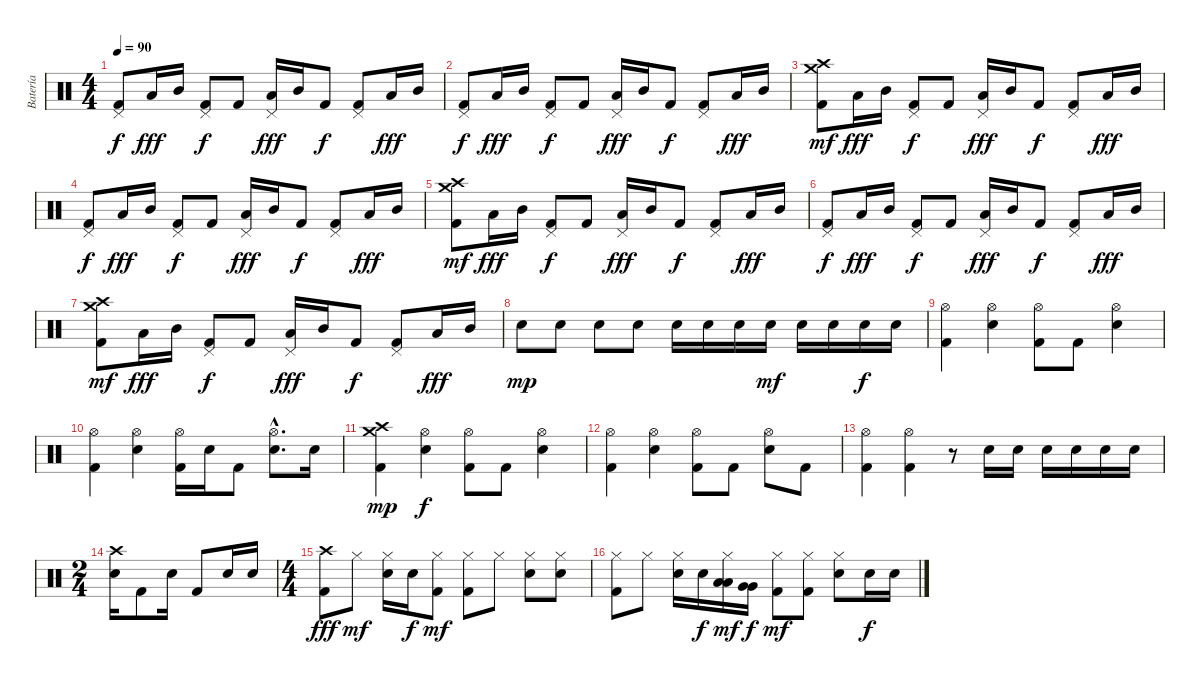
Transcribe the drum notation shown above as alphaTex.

\track ("Batería" "Batería") {instrument percussion}
\staff {score}
\articulation defaults
\ts (4 4)
\tempo 90
\clef neutral
\ks c
("Pedal Hi-Hat (hit)" "Kick (hit) 2").8{dy f} "Low Tom (hit)".16{dy fff} "Mid Tom (hit)".16 ("Pedal Hi-Hat (hit)" "Kick (hit) 2").8{dy f} "Kick (hit) 2".8 ("Pedal Hi-Hat (hit)" "Low Tom (hit)").16{dy fff} "Mid Tom (hit)".16 "Kick (hit) 2".8{dy f} ("Pedal Hi-Hat (hit)" "Kick (hit) 2").8 "Low Tom (hit)".16{dy fff} "Mid Tom (hit)".16 |
("Pedal Hi-Hat (hit)" "Kick (hit) 2").8{dy f} "Low Tom (hit)".16{dy fff} "Mid Tom (hit)".16 ("Pedal Hi-Hat (hit)" "Kick (hit) 2").8{dy f} "Kick (hit) 2".8 ("Pedal Hi-Hat (hit)" "Low Tom (hit)").16{dy fff} "Mid Tom (hit)".16 "Kick (hit) 2".8{dy f} ("Pedal Hi-Hat (hit)" "Kick (hit) 2").8 "Low Tom (hit)".16{dy fff} "Mid Tom (hit)".16 |
("Crash high (hit)" "Crash medium (hit)" "Kick (hit) 2").8{dy mf} "Low Tom (hit)".16{dy fff} "Mid Tom (hit)".16 ("Pedal Hi-Hat (hit)" "Kick (hit) 2").8{dy f} "Kick (hit) 2".8 ("Pedal Hi-Hat (hit)" "Low Tom (hit)").16{dy fff} "Mid Tom (hit)".16 "Kick (hit) 2".8{dy f} ("Pedal Hi-Hat (hit)" "Kick (hit) 2").8 "Low Tom (hit)".16{dy fff} "Mid Tom (hit)".16 |
("Pedal Hi-Hat (hit)" "Kick (hit) 2").8{dy f} "Low Tom (hit)".16{dy fff} "Mid Tom (hit)".16 ("Pedal Hi-Hat (hit)" "Kick (hit) 2").8{dy f} "Kick (hit) 2".8 ("Pedal Hi-Hat (hit)" "Low Tom (hit)").16{dy fff} "Mid Tom (hit)".16 "Kick (hit) 2".8{dy f} ("Pedal Hi-Hat (hit)" "Kick (hit) 2").8 "Low Tom (hit)".16{dy fff} "Mid Tom (hit)".16 |
("Crash high (hit)" "Crash medium (hit)" "Kick (hit) 2").8{dy mf} "Low Tom (hit)".16{dy fff} "Mid Tom (hit)".16 ("Pedal Hi-Hat (hit)" "Kick (hit) 2").8{dy f} "Kick (hit) 2".8 ("Pedal Hi-Hat (hit)" "Low Tom (hit)").16{dy fff} "Mid Tom (hit)".16 "Kick (hit) 2".8{dy f} ("Pedal Hi-Hat (hit)" "Kick (hit) 2").8 "Low Tom (hit)".16{dy fff} "Mid Tom (hit)".16 |
("Pedal Hi-Hat (hit)" "Kick (hit) 2").8{dy f} "Low Tom (hit)".16{dy fff} "Mid Tom (hit)".16 ("Pedal Hi-Hat (hit)" "Kick (hit) 2").8{dy f} "Kick (hit) 2".8 ("Pedal Hi-Hat (hit)" "Low Tom (hit)").16{dy fff} "Mid Tom (hit)".16 "Kick (hit) 2".8{dy f} ("Pedal Hi-Hat (hit)" "Kick (hit) 2").8 "Low Tom (hit)".16{dy fff} "Mid Tom (hit)".16 |
("Crash high (hit)" "Crash medium (hit)" "Kick (hit) 2").8{dy mf} "Low Tom (hit)".16{dy fff} "Mid Tom (hit)".16 ("Pedal Hi-Hat (hit)" "Kick (hit) 2").8{dy f} "Kick (hit) 2".8 ("Pedal Hi-Hat (hit)" "Low Tom (hit)").16{dy fff} "Mid Tom (hit)".16 "Kick (hit) 2".8{dy f} ("Pedal Hi-Hat (hit)" "Kick (hit) 2").8 "Low Tom (hit)".16{dy fff} "Mid Tom (hit)".16 |
"Snare (hit) 2".8{dy mp} "Snare (hit) 2".8 "Snare (hit) 2".8 "Snare (hit) 2".8 "Snare (hit) 2".16 "Snare (hit) 2".16 "Snare (hit) 2".16 "Snare (hit) 2".16{dy mf} "Snare (hit) 2".16 "Snare (hit) 2".16 "Snare (hit) 2".16{dy f} "Snare (hit) 2".16 |
("Hi-Hat (open)" "Kick (hit) 2").4 ("Hi-Hat (open)" "Snare (hit) 2").4 ("Hi-Hat (open)" "Kick (hit) 2").8 "Kick (hit) 2".8 ("Hi-Hat (open)" "Snare (hit) 2").4 |
("Hi-Hat (open)" "Kick (hit) 2").4 ("Hi-Hat (open)" "Snare (hit) 2").4 ("Hi-Hat (open)" "Kick (hit) 2").16 "Snare (hit) 2".16 "Kick (hit) 2".8 ("Hi-Hat (open)"{hac} "Snare (hit) 2"{hac}).8{d} "Snare (hit) 2".16 |
("Crash high (hit)" "Crash medium (hit)" "Kick (hit) 2").4{dy mp} ("Hi-Hat (open)" "Snare (hit) 2").4{dy f} ("Hi-Hat (open)" "Kick (hit) 2").8 "Kick (hit) 2".8 ("Hi-Hat (open)" "Snare (hit) 2").4 |
("Hi-Hat (open)" "Kick (hit) 2").4 ("Hi-Hat (open)" "Snare (hit) 2").4 ("Hi-Hat (open)" "Kick (hit) 2").8 "Kick (hit) 2".8 ("Hi-Hat (open)" "Snare (hit) 2").8 "Kick (hit) 2".8 |
("Hi-Hat (open)" "Kick (hit) 2").4 ("Hi-Hat (open)" "Kick (hit) 2").4 r.8 "Snare (hit) 2".16 "Snare (hit) 2".16 "Snare (hit) 2".16 "Snare (hit) 2".16 "Snare (hit) 2".16 "Snare (hit) 2".16 |
\ts (2 4)
("Crash high (hit)" "Snare (hit) 2").16 "Kick (hit) 2".8 "Snare (hit) 2".16 "Kick (hit) 2".8 "Snare (hit) 2".16 "Snare (hit) 2".16 |
\ts (4 4)
("Crash high (hit)" "Kick (hit) 2").8{dy fff volume 10} "Hi-Hat (closed)".8{dy mf} ("Hi-Hat (closed)" "Snare (hit) 2").16 "Snare (hit) 2".16{dy f} ("Hi-Hat (closed)" "Kick (hit) 2").8{dy mf} ("Hi-Hat (closed)" "Kick (hit) 2").8 "Hi-Hat (closed)".8 ("Hi-Hat (closed)" "Snare (hit) 2").8 ("Hi-Hat (closed)" "Snare (hit) 2").8 |
("Hi-Hat (closed)" "Kick (hit) 2").8 "Hi-Hat (closed)".8 ("Hi-Hat (closed)" "Snare (hit) 2").16 "Snare (hit) 2".16{dy f} ("Hi-Hat (closed)" "Low Tom (hit)" "Low Tom (hit)").16{dy mf} ("Very Low Tom (hit)" "Very Low Tom (hit)").16{dy f} ("Hi-Hat (closed)" "Kick (hit) 2").8{dy mf} ("Hi-Hat (closed)" "Kick (hit) 2").8 ("Hi-Hat (closed)" "Snare (hit) 2").8 "Snare (hit) 2".16{dy f} "Snare (hit) 2".16
